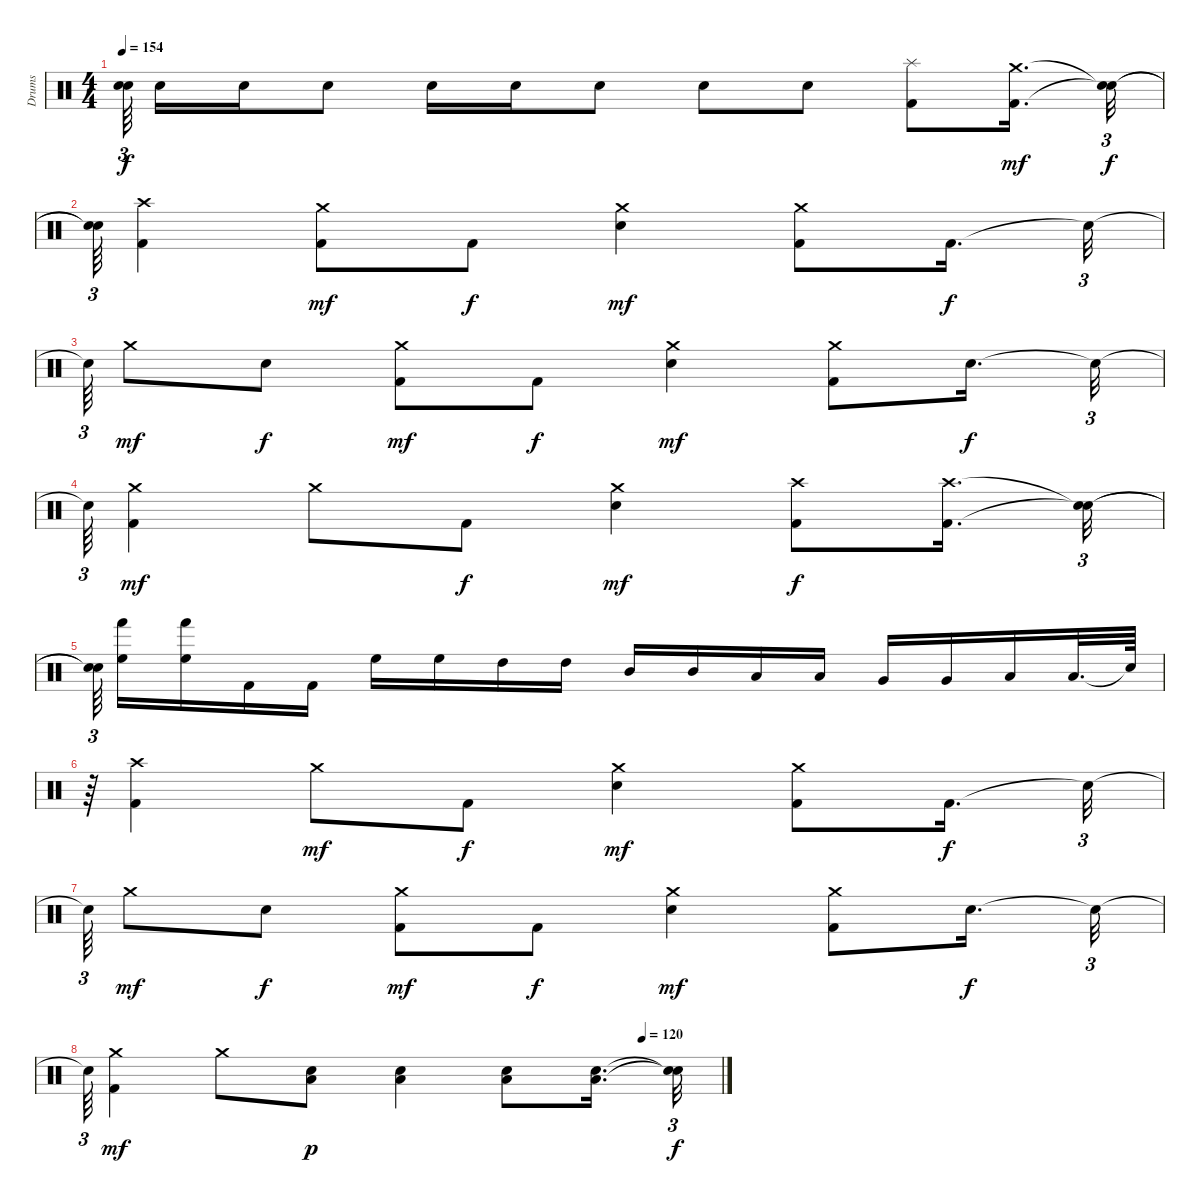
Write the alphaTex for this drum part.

\track ("Drums" "Drums") {instrument percussion}
\staff {score}
\articulation defaults
\ts (4 4)
\tempo 154
\clef neutral
\ks c
("Snare (hit)"{t} "Snare (hit)"{t}).64{tu (3 2) dy f} "Electric Snare (hit)".16 "Electric Snare (hit)".16 "Electric Snare (hit)".8 "Electric Snare (hit)".16 "Electric Snare (hit)".16 "Electric Snare (hit)".8 "Electric Snare (hit)".8 "Electric Snare (hit)".8 ("Kick (hit) 2" "Splash (hit)").8 ("Kick (hit) 2" "Crash medium (hit)").16{d dy mf} ("Snare (hit)"{t} "Snare (hit)"{t}).32{tu (3 2) dy f} |
("Snare (hit)"{t} "Snare (hit)"{t}).64{tu (3 2)} ("Kick (hit) 2" "Crash high (hit)").4 ("Kick (hit) 2" "Crash medium (hit)").8{dy mf} "Kick (hit) 2".8{dy f} ("Electric Snare (hit)" "Crash medium (hit)").4{dy mf} ("Kick (hit) 2" "Crash medium (hit)").8 "Kick (hit) 2".16{d dy f} "Snare (hit)"{t}.32{tu (3 2)} |
"Snare (hit)"{t}.64{tu (3 2)} "Crash medium (hit)".8{dy mf} "Electric Snare (hit)".8{dy f} ("Kick (hit) 2" "Crash medium (hit)").8{dy mf} "Kick (hit) 2".8{dy f} ("Electric Snare (hit)" "Crash medium (hit)").4{dy mf} ("Kick (hit) 2" "Crash medium (hit)").8 "Electric Snare (hit)".16{d dy f} "Snare (hit)"{t}.32{tu (3 2)} |
"Snare (hit)"{t}.64{tu (3 2)} ("Kick (hit) 2" "Crash medium (hit)").4{dy mf} "Crash medium (hit)".8 "Kick (hit) 2".8{dy f} ("Electric Snare (hit)" "Crash medium (hit)").4{dy mf} ("Kick (hit) 2" "Crash high (hit)").8{dy f} ("Kick (hit) 2" "Crash high (hit)").16{d} ("Snare (hit)"{t} "Snare (hit)"{t}).32{tu (3 2)} |
("Snare (hit)"{t} "Snare (hit)"{t}).64{tu (3 2)} ("High Floor Tom (hit)" "Hand (hit)").16 ("High Floor Tom (hit)" "Hand (hit)").16 "Kick (hit) 2".16 "Kick (hit) 2".16 "High Floor Tom (hit)".16 "High Floor Tom (hit)".16 "High Tom (hit)".16 "High Tom (hit)".16 "Mid Tom (hit)".16 "Mid Tom (hit)".16 "Low Tom (hit)".16 "Low Tom (hit)".16 "Very Low Tom (hit)".16 "Very Low Tom (hit)".16 "Low Floor Tom (hit)".16 "Low Floor Tom (hit)".32{d} "Snare (hit)"{t}.64 |
r.64{tu (3 2)} ("Crash high (hit)" "Kick (hit) 2").4 "Crash medium (hit)".8{dy mf} "Kick (hit) 2".8{dy f} ("Electric Snare (hit)" "Crash medium (hit)").4{dy mf} ("Kick (hit) 2" "Crash medium (hit)").8 "Kick (hit) 2".16{d dy f} "Snare (hit)"{t}.32{tu (3 2)} |
"Snare (hit)"{t}.64{tu (3 2)} "Crash medium (hit)".8{dy mf} "Electric Snare (hit)".8{dy f} ("Kick (hit) 2" "Crash medium (hit)").8{dy mf} "Kick (hit) 2".8{dy f} ("Electric Snare (hit)" "Crash medium (hit)").4{dy mf} ("Kick (hit) 2" "Crash medium (hit)").8 "Electric Snare (hit)".16{d dy f} "Snare (hit)"{t}.32{tu (3 2)} |
\tempo (120 0.875)
"Snare (hit)"{t}.64{tu (3 2)} ("Kick (hit) 2" "Crash medium (hit)").4{dy mf} "Crash medium (hit)".8 ("Electric Snare (hit)" "Low Tom (hit)").8{dy p} ("Electric Snare (hit)" "Low Tom (hit)").4 ("Electric Snare (hit)" "Low Tom (hit)").8 ("Electric Snare (hit)" "Low Tom (hit)").16{d} ("Snare (hit)"{t} "Snare (hit)"{t}).32{tu (3 2) dy f}
